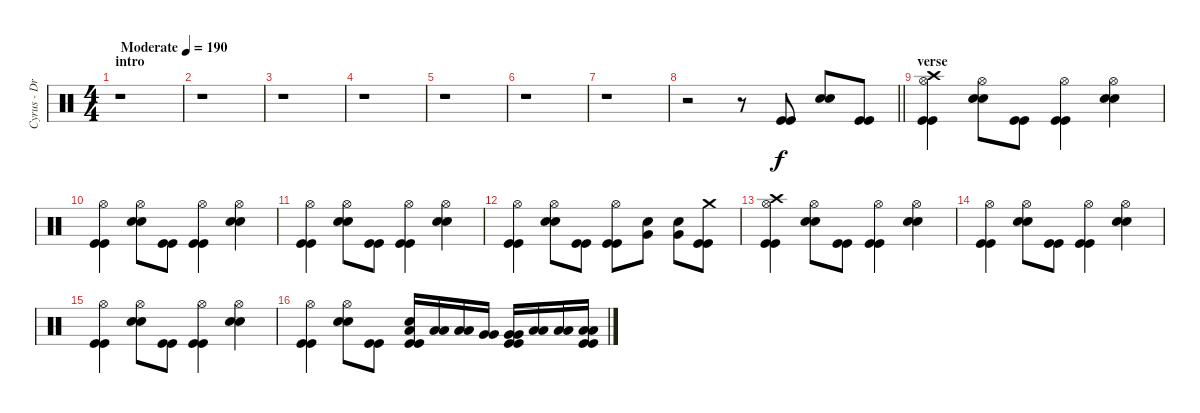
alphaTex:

\track ("Cyrus - Drums" "Cyrus - Dr") {instrument percussion}
\staff {score}
\articulation defaults
\ts (4 4)
\section ("" "intro")
\tempo (190 "Moderate")
\clef neutral
\ks c
r.1{dy f} |
r.1 |
r.1 |
r.1 |
r.1 |
r.1 |
r.1 |
\barLineRight lightlight
r.2 r.8 ("Kick (hit)" "Kick (hit)").8 ("Snare (hit) 2" "Snare (hit) 2").8 ("Kick (hit)" "Kick (hit)").8 |
\section ("" "verse")
("Kick (hit)" "Kick (hit)" "Hi-Hat (open)" "Crash high (hit)").4 ("Snare (hit) 2" "Snare (hit) 2" "Hi-Hat (open)").8 ("Kick (hit)" "Kick (hit)").8 ("Kick (hit)" "Kick (hit)" "Hi-Hat (open)").4 ("Snare (hit) 2" "Snare (hit) 2" "Hi-Hat (open)").4 |
("Kick (hit)" "Kick (hit)" "Hi-Hat (open)").4 ("Snare (hit) 2" "Snare (hit) 2" "Hi-Hat (open)").8 ("Kick (hit)" "Kick (hit)").8 ("Kick (hit)" "Kick (hit)" "Hi-Hat (open)").4 ("Snare (hit) 2" "Snare (hit) 2" "Hi-Hat (open)").4 |
("Kick (hit)" "Kick (hit)" "Hi-Hat (open)").4 ("Snare (hit) 2" "Snare (hit) 2" "Hi-Hat (open)").8 ("Kick (hit)" "Kick (hit)").8 ("Kick (hit)" "Kick (hit)" "Hi-Hat (open)").4 ("Snare (hit) 2" "Snare (hit) 2" "Hi-Hat (open)").4 |
("Kick (hit)" "Kick (hit)" "Hi-Hat (open)").4 ("Snare (hit) 2" "Snare (hit) 2" "Hi-Hat (open)").8 ("Kick (hit)" "Kick (hit)").8 ("Kick (hit)" "Kick (hit)" "Hi-Hat (open)").8 ("Very Low Tom (hit)" "Snare (hit) 2").8 ("Very Low Tom (hit)" "Snare (hit) 2").8 ("Kick (hit)" "Kick (hit)" "Crash medium (hit)").8 |
("Kick (hit)" "Kick (hit)" "Hi-Hat (open)" "Crash high (hit)").4 ("Snare (hit) 2" "Snare (hit) 2" "Hi-Hat (open)").8 ("Kick (hit)" "Kick (hit)").8 ("Kick (hit)" "Kick (hit)" "Hi-Hat (open)").4 ("Snare (hit) 2" "Snare (hit) 2" "Hi-Hat (open)").4 |
("Kick (hit)" "Kick (hit)" "Hi-Hat (open)").4 ("Snare (hit) 2" "Snare (hit) 2" "Hi-Hat (open)").8 ("Kick (hit)" "Kick (hit)").8 ("Kick (hit)" "Kick (hit)" "Hi-Hat (open)").4 ("Snare (hit) 2" "Snare (hit) 2" "Hi-Hat (open)").4 |
("Kick (hit)" "Kick (hit)" "Hi-Hat (open)").4 ("Snare (hit) 2" "Snare (hit) 2" "Hi-Hat (open)").8 ("Kick (hit)" "Kick (hit)").8 ("Kick (hit)" "Kick (hit)" "Hi-Hat (open)").4 ("Snare (hit) 2" "Snare (hit) 2" "Hi-Hat (open)").4 |
("Kick (hit)" "Kick (hit)" "Hi-Hat (open)").4 ("Snare (hit) 2" "Snare (hit) 2" "Hi-Hat (open)").8 ("Kick (hit)" "Kick (hit)").8 ("Kick (hit)" "Kick (hit)" "Snare (hit) 2" "Low Tom (hit)").16 ("Low Tom (hit)" "Low Tom (hit)").16 ("Low Tom (hit)" "Low Tom (hit)").16 ("Very Low Tom (hit)" "Very Low Tom (hit)").16 ("Kick (hit)" "Kick (hit)" "Very Low Tom (hit)" "Very Low Tom (hit)").16 ("Low Floor Tom (hit)" "Low Floor Tom (hit)").16 ("Low Floor Tom (hit)" "Low Floor Tom (hit)").16 ("Kick (hit)" "Kick (hit)" "Low Floor Tom (hit)" "Low Floor Tom (hit)").16
